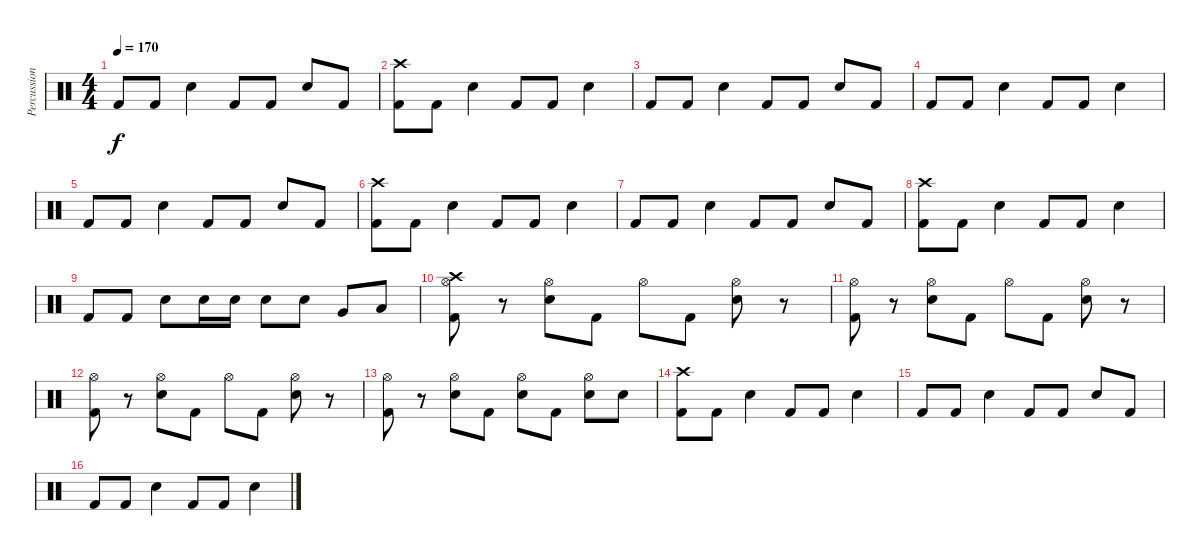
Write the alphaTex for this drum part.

\track ("Percussion" "Percussion") {instrument percussion}
\staff {score}
\articulation defaults
\ts (4 4)
\tempo 170
\clef neutral
\ks c "Kick (hit) 2".8{dy f} "Kick (hit) 2".8 "Electric Snare (hit)".4 "Kick (hit) 2".8 "Kick (hit) 2".8 "Electric Snare (hit)".8 "Kick (hit) 2".8
|
("Crash high (hit)" "Kick (hit) 2").8 "Kick (hit) 2".8 "Electric Snare (hit)".4 "Kick (hit) 2".8 "Kick (hit) 2".8 "Electric Snare (hit)".4 |
"Kick (hit) 2".8 "Kick (hit) 2".8 "Electric Snare (hit)".4 "Kick (hit) 2".8 "Kick (hit) 2".8 "Electric Snare (hit)".8 "Kick (hit) 2".8 |
"Kick (hit) 2".8 "Kick (hit) 2".8 "Electric Snare (hit)".4 "Kick (hit) 2".8 "Kick (hit) 2".8 "Electric Snare (hit)".4 |
"Kick (hit) 2".8 "Kick (hit) 2".8 "Electric Snare (hit)".4 "Kick (hit) 2".8 "Kick (hit) 2".8 "Electric Snare (hit)".8 "Kick (hit) 2".8 |
("Crash high (hit)" "Kick (hit) 2").8 "Kick (hit) 2".8 "Electric Snare (hit)".4 "Kick (hit) 2".8 "Kick (hit) 2".8 "Electric Snare (hit)".4 |
"Kick (hit) 2".8 "Kick (hit) 2".8 "Electric Snare (hit)".4 "Kick (hit) 2".8 "Kick (hit) 2".8 "Electric Snare (hit)".8 "Kick (hit) 2".8 |
("Crash high (hit)" "Kick (hit) 2").8 "Kick (hit) 2".8 "Electric Snare (hit)".4 "Kick (hit) 2".8 "Kick (hit) 2".8 "Electric Snare (hit)".4 |
"Kick (hit) 2".8 "Kick (hit) 2".8 "Electric Snare (hit)".8 "Electric Snare (hit)".16 "Electric Snare (hit)".16 "Electric Snare (hit)".8 "Electric Snare (hit)".8 "Very Low Tom (hit)".8 "Low Floor Tom (hit)".8 |
("Hi-Hat (open)" "Crash high (hit)" "Kick (hit) 2").8 r.8 ("Hi-Hat (open)" "Electric Snare (hit)").8 "Kick (hit) 2".8 "Hi-Hat (open)".8 "Kick (hit) 2".8 ("Hi-Hat (open)" "Electric Snare (hit)").8 r.8 |
("Hi-Hat (open)" "Kick (hit) 2").8 r.8 ("Hi-Hat (open)" "Electric Snare (hit)").8 "Kick (hit) 2".8 "Hi-Hat (open)".8 "Kick (hit) 2".8 ("Hi-Hat (open)" "Electric Snare (hit)").8 r.8 |
("Hi-Hat (open)" "Kick (hit) 2").8 r.8 ("Hi-Hat (open)" "Electric Snare (hit)").8 "Kick (hit) 2".8 "Hi-Hat (open)".8 "Kick (hit) 2".8 ("Hi-Hat (open)" "Electric Snare (hit)").8 r.8 |
("Hi-Hat (open)" "Kick (hit) 2").8 r.8 ("Hi-Hat (open)" "Electric Snare (hit)").8 "Kick (hit) 2".8 ("Hi-Hat (open)" "Electric Snare (hit)").8 "Kick (hit) 2".8 ("Hi-Hat (open)" "Electric Snare (hit)").8 "Electric Snare (hit)".8 |
("Crash high (hit)" "Kick (hit) 2").8 "Kick (hit) 2".8 "Electric Snare (hit)".4 "Kick (hit) 2".8 "Kick (hit) 2".8 "Electric Snare (hit)".4 |
"Kick (hit) 2".8 "Kick (hit) 2".8 "Electric Snare (hit)".4 "Kick (hit) 2".8 "Kick (hit) 2".8 "Electric Snare (hit)".8 "Kick (hit) 2".8 |
"Kick (hit) 2".8 "Kick (hit) 2".8 "Electric Snare (hit)".4 "Kick (hit) 2".8 "Kick (hit) 2".8 "Electric Snare (hit)".4
